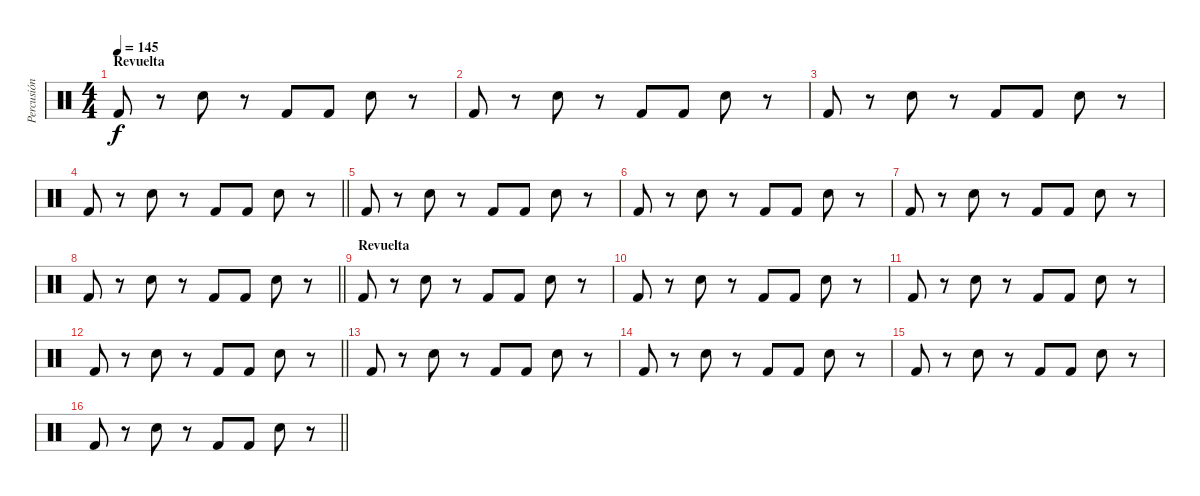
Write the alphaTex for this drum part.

\track ("Percusión" "Percusión") {instrument percussion}
\staff {score}
\articulation defaults
\ts (4 4)
\section ("" "Revuelta")
\tempo 145
\clef neutral
\ks c "Kick (hit) 2".8{dy f}
r.8 "Snare (hit) 2".8 r.8 "Kick (hit) 2".8 "Kick (hit) 2".8 "Snare (hit) 2".8 r.8 |
"Kick (hit) 2".8 r.8 "Snare (hit) 2".8 r.8 "Kick (hit) 2".8 "Kick (hit) 2".8 "Snare (hit) 2".8 r.8 |
"Kick (hit) 2".8 r.8 "Snare (hit) 2".8 r.8 "Kick (hit) 2".8 "Kick (hit) 2".8 "Snare (hit) 2".8 r.8 |
\barLineRight lightlight "Kick (hit) 2".8
r.8 "Snare (hit) 2".8 r.8 "Kick (hit) 2".8 "Kick (hit) 2".8 "Snare (hit) 2".8 r.8 |
"Kick (hit) 2".8 r.8 "Snare (hit) 2".8 r.8 "Kick (hit) 2".8 "Kick (hit) 2".8 "Snare (hit) 2".8 r.8 |
"Kick (hit) 2".8 r.8 "Snare (hit) 2".8 r.8 "Kick (hit) 2".8 "Kick (hit) 2".8 "Snare (hit) 2".8 r.8 |
"Kick (hit) 2".8 r.8 "Snare (hit) 2".8 r.8 "Kick (hit) 2".8 "Kick (hit) 2".8 "Snare (hit) 2".8 r.8 |
\barLineRight lightlight "Kick (hit) 2".8
r.8 "Snare (hit) 2".8 r.8 "Kick (hit) 2".8 "Kick (hit) 2".8 "Snare (hit) 2".8 r.8 |
\section ("" "Revuelta")
"Kick (hit) 2".8 r.8 "Snare (hit) 2".8 r.8 "Kick (hit) 2".8 "Kick (hit) 2".8 "Snare (hit) 2".8 r.8 |
"Kick (hit) 2".8 r.8 "Snare (hit) 2".8 r.8 "Kick (hit) 2".8 "Kick (hit) 2".8 "Snare (hit) 2".8 r.8 |
"Kick (hit) 2".8 r.8 "Snare (hit) 2".8 r.8 "Kick (hit) 2".8 "Kick (hit) 2".8 "Snare (hit) 2".8 r.8 |
\barLineRight lightlight "Kick (hit) 2".8
r.8 "Snare (hit) 2".8 r.8 "Kick (hit) 2".8 "Kick (hit) 2".8 "Snare (hit) 2".8 r.8 |
"Kick (hit) 2".8 r.8 "Snare (hit) 2".8 r.8 "Kick (hit) 2".8 "Kick (hit) 2".8 "Snare (hit) 2".8 r.8 |
"Kick (hit) 2".8 r.8 "Snare (hit) 2".8 r.8 "Kick (hit) 2".8 "Kick (hit) 2".8 "Snare (hit) 2".8 r.8 |
"Kick (hit) 2".8 r.8 "Snare (hit) 2".8 r.8 "Kick (hit) 2".8 "Kick (hit) 2".8 "Snare (hit) 2".8 r.8 |
\barLineRight lightlight "Kick (hit) 2".8
r.8 "Snare (hit) 2".8 r.8 "Kick (hit) 2".8 "Kick (hit) 2".8 "Snare (hit) 2".8 r.8
